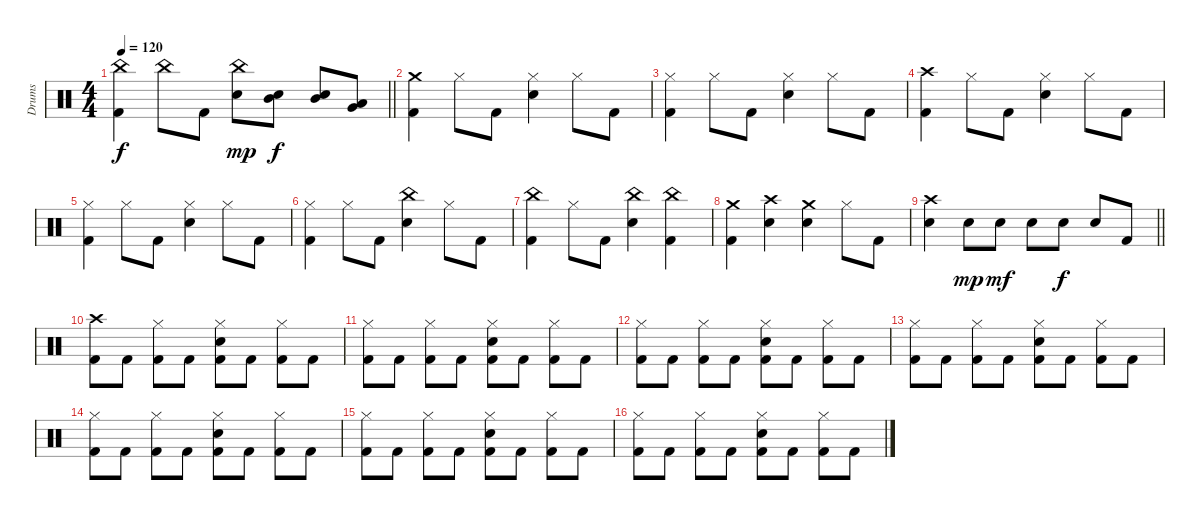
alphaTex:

\track ("Drums" "Drums") {instrument percussion}
\staff {score}
\articulation defaults
\ts (4 4)
\tempo 120
\clef neutral
\barLineRight lightlight
\ks c
("China (hit)" "Kick (hit) 2").4{dy f} "China (hit)".8 "Kick (hit) 2".8 ("China (hit)" "Electric Snare (hit)").8{dy mp} ("Mid Tom (hit)" "Electric Snare (hit)").8{dy f} ("Mid Tom (hit)" "Electric Snare (hit)").8 ("Low Tom (hit)" "Very Low Tom (hit)").8 |
("Crash medium (hit)" "Kick (hit) 2").4 "Hi-Hat (closed)".8 "Kick (hit) 2".8 ("Hi-Hat (closed)" "Electric Snare (hit)").4 "Hi-Hat (closed)".8 "Kick (hit) 2".8 |
("Hi-Hat (closed)" "Kick (hit) 2").4 "Hi-Hat (closed)".8 "Kick (hit) 2".8 ("Hi-Hat (closed)" "Electric Snare (hit)").4 "Hi-Hat (closed)".8 "Kick (hit) 2".8 |
("Crash high (hit)" "Kick (hit) 2").4 "Hi-Hat (closed)".8 "Kick (hit) 2".8 ("Hi-Hat (closed)" "Electric Snare (hit)").4 "Hi-Hat (closed)".8 "Kick (hit) 2".8 |
("Hi-Hat (closed)" "Kick (hit) 2").4 "Hi-Hat (closed)".8 "Kick (hit) 2".8 ("Hi-Hat (closed)" "Electric Snare (hit)").4 "Hi-Hat (closed)".8 "Kick (hit) 2".8 |
("Hi-Hat (closed)" "Kick (hit) 2").4 "Hi-Hat (closed)".8 "Kick (hit) 2".8 ("China (hit)" "Electric Snare (hit)").4 "Hi-Hat (closed)".8 "Kick (hit) 2".8 |
("China (hit)" "Kick (hit) 2").4 "Hi-Hat (closed)".8 "Kick (hit) 2".8 ("China (hit)" "Electric Snare (hit)").4 ("China (hit)" "Kick (hit) 2").4 |
("Crash medium (hit)" "Kick (hit) 2").4 ("Crash high (hit)" "Electric Snare (hit)").4 ("Crash medium (hit)" "Electric Snare (hit)").4 "Hi-Hat (closed)".8 "Kick (hit) 2".8 |
\barLineRight lightlight
("Crash high (hit)" "Electric Snare (hit)").4 "Electric Snare (hit)".8{dy mp} "Electric Snare (hit)".8{dy mf} "Electric Snare (hit)".8 "Electric Snare (hit)".8{dy f} "Electric Snare (hit)".8 "Kick (hit) 2".8 |
("Crash high (hit)" "Kick (hit) 2").8 "Kick (hit) 2".8 ("Hi-Hat (closed)" "Kick (hit) 2").8 "Kick (hit) 2".8 ("Hi-Hat (closed)" "Electric Snare (hit)" "Kick (hit) 2").8 "Kick (hit) 2".8 ("Hi-Hat (closed)" "Kick (hit) 2").8 "Kick (hit) 2".8 |
("Hi-Hat (closed)" "Kick (hit) 2").8 "Kick (hit) 2".8 ("Hi-Hat (closed)" "Kick (hit) 2").8 "Kick (hit) 2".8 ("Hi-Hat (closed)" "Electric Snare (hit)" "Kick (hit) 2").8 "Kick (hit) 2".8 ("Hi-Hat (closed)" "Kick (hit) 2").8 "Kick (hit) 2".8 |
("Hi-Hat (closed)" "Kick (hit) 2").8 "Kick (hit) 2".8 ("Hi-Hat (closed)" "Kick (hit) 2").8 "Kick (hit) 2".8 ("Hi-Hat (closed)" "Electric Snare (hit)" "Kick (hit) 2").8 "Kick (hit) 2".8 ("Hi-Hat (closed)" "Kick (hit) 2").8 "Kick (hit) 2".8 |
("Hi-Hat (closed)" "Kick (hit) 2").8 "Kick (hit) 2".8 ("Hi-Hat (closed)" "Kick (hit) 2").8 "Kick (hit) 2".8 ("Hi-Hat (closed)" "Electric Snare (hit)" "Kick (hit) 2").8 "Kick (hit) 2".8 ("Hi-Hat (closed)" "Kick (hit) 2").8 "Kick (hit) 2".8 |
("Hi-Hat (closed)" "Kick (hit) 2").8 "Kick (hit) 2".8 ("Hi-Hat (closed)" "Kick (hit) 2").8 "Kick (hit) 2".8 ("Hi-Hat (closed)" "Electric Snare (hit)" "Kick (hit) 2").8 "Kick (hit) 2".8 ("Hi-Hat (closed)" "Kick (hit) 2").8 "Kick (hit) 2".8 |
("Hi-Hat (closed)" "Kick (hit) 2").8 "Kick (hit) 2".8 ("Hi-Hat (closed)" "Kick (hit) 2").8 "Kick (hit) 2".8 ("Hi-Hat (closed)" "Electric Snare (hit)" "Kick (hit) 2").8 "Kick (hit) 2".8 ("Hi-Hat (closed)" "Kick (hit) 2").8 "Kick (hit) 2".8 |
("Hi-Hat (closed)" "Kick (hit) 2").8 "Kick (hit) 2".8 ("Hi-Hat (closed)" "Kick (hit) 2").8 "Kick (hit) 2".8 ("Hi-Hat (closed)" "Electric Snare (hit)" "Kick (hit) 2").8 "Kick (hit) 2".8 ("Hi-Hat (closed)" "Kick (hit) 2").8 "Kick (hit) 2".8
